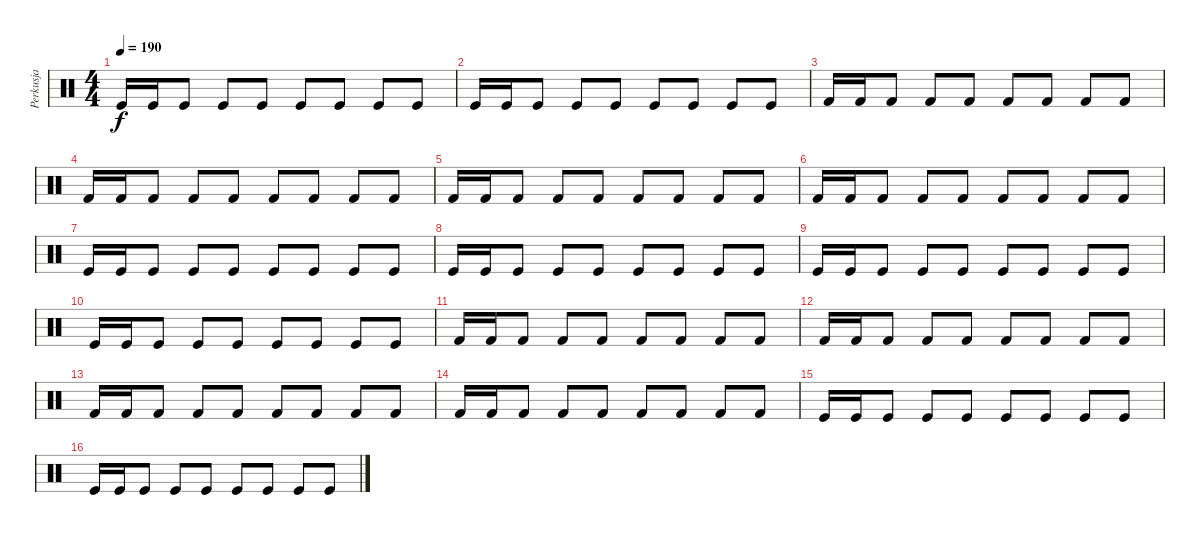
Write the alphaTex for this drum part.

\track ("Perkusja" "Perkusja") {instrument percussion}
\staff {score}
\articulation defaults
\ts (4 4)
\tempo 190
\clef neutral
\ks c "Kick (hit)".16{dy f} "Kick (hit)".16 "Kick (hit)".8 "Kick (hit)".8 "Kick (hit)".8 "Kick (hit)".8 "Kick (hit)".8 "Kick (hit)".8 "Kick (hit)".8
|
"Kick (hit)".16 "Kick (hit)".16 "Kick (hit)".8 "Kick (hit)".8 "Kick (hit)".8 "Kick (hit)".8 "Kick (hit)".8 "Kick (hit)".8 "Kick (hit)".8 |
"Kick (hit) 2".16 "Kick (hit) 2".16 "Kick (hit) 2".8 "Kick (hit) 2".8 "Kick (hit) 2".8 "Kick (hit) 2".8 "Kick (hit) 2".8 "Kick (hit) 2".8 "Kick (hit) 2".8 |
"Kick (hit) 2".16 "Kick (hit) 2".16 "Kick (hit) 2".8 "Kick (hit) 2".8 "Kick (hit) 2".8 "Kick (hit) 2".8 "Kick (hit) 2".8 "Kick (hit) 2".8 "Kick (hit) 2".8 |
"Kick (hit) 2".16 "Kick (hit) 2".16 "Kick (hit) 2".8 "Kick (hit) 2".8 "Kick (hit) 2".8 "Kick (hit) 2".8 "Kick (hit) 2".8 "Kick (hit) 2".8 "Kick (hit) 2".8 |
"Kick (hit) 2".16 "Kick (hit) 2".16 "Kick (hit) 2".8 "Kick (hit) 2".8 "Kick (hit) 2".8 "Kick (hit) 2".8 "Kick (hit) 2".8 "Kick (hit) 2".8 "Kick (hit) 2".8 |
"Kick (hit)".16 "Kick (hit)".16 "Kick (hit)".8 "Kick (hit)".8 "Kick (hit)".8 "Kick (hit)".8 "Kick (hit)".8 "Kick (hit)".8 "Kick (hit)".8 |
"Kick (hit)".16 "Kick (hit)".16 "Kick (hit)".8 "Kick (hit)".8 "Kick (hit)".8 "Kick (hit)".8 "Kick (hit)".8 "Kick (hit)".8 "Kick (hit)".8 |
"Kick (hit)".16 "Kick (hit)".16 "Kick (hit)".8 "Kick (hit)".8 "Kick (hit)".8 "Kick (hit)".8 "Kick (hit)".8 "Kick (hit)".8 "Kick (hit)".8 |
"Kick (hit)".16 "Kick (hit)".16 "Kick (hit)".8 "Kick (hit)".8 "Kick (hit)".8 "Kick (hit)".8 "Kick (hit)".8 "Kick (hit)".8 "Kick (hit)".8 |
"Kick (hit) 2".16 "Kick (hit) 2".16 "Kick (hit) 2".8 "Kick (hit) 2".8 "Kick (hit) 2".8 "Kick (hit) 2".8 "Kick (hit) 2".8 "Kick (hit) 2".8 "Kick (hit) 2".8 |
"Kick (hit) 2".16 "Kick (hit) 2".16 "Kick (hit) 2".8 "Kick (hit) 2".8 "Kick (hit) 2".8 "Kick (hit) 2".8 "Kick (hit) 2".8 "Kick (hit) 2".8 "Kick (hit) 2".8 |
"Kick (hit) 2".16 "Kick (hit) 2".16 "Kick (hit) 2".8 "Kick (hit) 2".8 "Kick (hit) 2".8 "Kick (hit) 2".8 "Kick (hit) 2".8 "Kick (hit) 2".8 "Kick (hit) 2".8 |
"Kick (hit) 2".16 "Kick (hit) 2".16 "Kick (hit) 2".8 "Kick (hit) 2".8 "Kick (hit) 2".8 "Kick (hit) 2".8 "Kick (hit) 2".8 "Kick (hit) 2".8 "Kick (hit) 2".8 |
"Kick (hit)".16 "Kick (hit)".16 "Kick (hit)".8 "Kick (hit)".8 "Kick (hit)".8 "Kick (hit)".8 "Kick (hit)".8 "Kick (hit)".8 "Kick (hit)".8 |
"Kick (hit)".16 "Kick (hit)".16 "Kick (hit)".8 "Kick (hit)".8 "Kick (hit)".8 "Kick (hit)".8 "Kick (hit)".8 "Kick (hit)".8 "Kick (hit)".8
